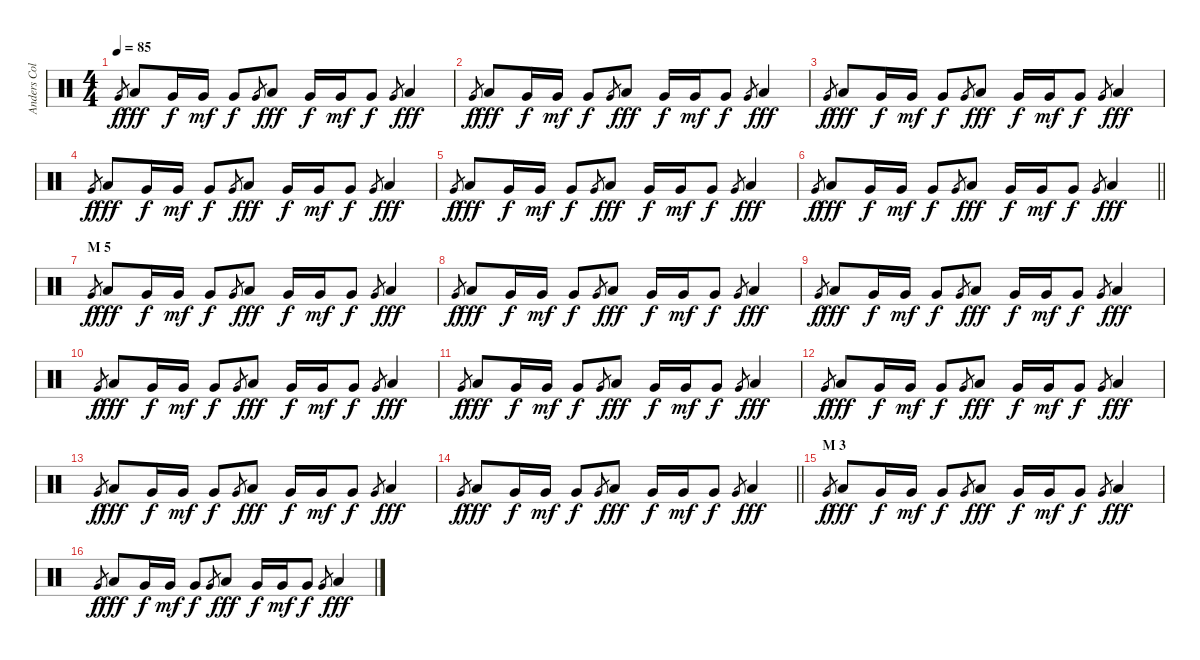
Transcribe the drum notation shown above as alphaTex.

\track ("Anders Colsefni" "Anders Col") {instrument percussion}
\staff {score}
\articulation defaults
\ts (4 4)
\tempo 85
\clef neutral
\ks c "Very Low Tom (hit)".8{gr dy f} "Low Tom (hit)".8{dy fff} "Very Low Tom (hit)".16{dy f} "Very Low Tom (hit)".16{dy mf} "Very Low Tom (hit)".8{dy f} "Very Low Tom (hit)".8{gr} "Low Tom (hit)".8{dy fff} "Very Low Tom (hit)".16{dy f} "Very Low Tom (hit)".16{dy mf} "Very Low Tom (hit)".8{dy f} "Very Low Tom (hit)".8{gr} "Low Tom (hit)".4{dy fff}
|
"Very Low Tom (hit)".8{gr dy f} "Low Tom (hit)".8{dy fff} "Very Low Tom (hit)".16{dy f} "Very Low Tom (hit)".16{dy mf} "Very Low Tom (hit)".8{dy f} "Very Low Tom (hit)".8{gr} "Low Tom (hit)".8{dy fff} "Very Low Tom (hit)".16{dy f} "Very Low Tom (hit)".16{dy mf} "Very Low Tom (hit)".8{dy f} "Very Low Tom (hit)".8{gr} "Low Tom (hit)".4{dy fff} |
"Very Low Tom (hit)".8{gr dy f} "Low Tom (hit)".8{dy fff} "Very Low Tom (hit)".16{dy f} "Very Low Tom (hit)".16{dy mf} "Very Low Tom (hit)".8{dy f} "Very Low Tom (hit)".8{gr} "Low Tom (hit)".8{dy fff} "Very Low Tom (hit)".16{dy f} "Very Low Tom (hit)".16{dy mf} "Very Low Tom (hit)".8{dy f} "Very Low Tom (hit)".8{gr} "Low Tom (hit)".4{dy fff} |
"Very Low Tom (hit)".8{gr dy f} "Low Tom (hit)".8{dy fff} "Very Low Tom (hit)".16{dy f} "Very Low Tom (hit)".16{dy mf} "Very Low Tom (hit)".8{dy f} "Very Low Tom (hit)".8{gr} "Low Tom (hit)".8{dy fff} "Very Low Tom (hit)".16{dy f} "Very Low Tom (hit)".16{dy mf} "Very Low Tom (hit)".8{dy f} "Very Low Tom (hit)".8{gr} "Low Tom (hit)".4{dy fff} |
"Very Low Tom (hit)".8{gr dy f} "Low Tom (hit)".8{dy fff} "Very Low Tom (hit)".16{dy f} "Very Low Tom (hit)".16{dy mf} "Very Low Tom (hit)".8{dy f} "Very Low Tom (hit)".8{gr} "Low Tom (hit)".8{dy fff} "Very Low Tom (hit)".16{dy f} "Very Low Tom (hit)".16{dy mf} "Very Low Tom (hit)".8{dy f} "Very Low Tom (hit)".8{gr} "Low Tom (hit)".4{dy fff} |
\barLineRight lightlight "Very Low Tom (hit)".8{gr dy f} "Low Tom (hit)".8{dy fff} "Very Low Tom (hit)".16{dy f} "Very Low Tom (hit)".16{dy mf} "Very Low Tom (hit)".8{dy f} "Very Low Tom (hit)".8{gr} "Low Tom (hit)".8{dy fff} "Very Low Tom (hit)".16{dy f} "Very Low Tom (hit)".16{dy mf} "Very Low Tom (hit)".8{dy f} "Very Low Tom (hit)".8{gr} "Low Tom (hit)".4{dy fff}
|
\section ("" "M 5")
"Very Low Tom (hit)".8{gr dy f} "Low Tom (hit)".8{dy fff} "Very Low Tom (hit)".16{dy f} "Very Low Tom (hit)".16{dy mf} "Very Low Tom (hit)".8{dy f} "Very Low Tom (hit)".8{gr} "Low Tom (hit)".8{dy fff} "Very Low Tom (hit)".16{dy f} "Very Low Tom (hit)".16{dy mf} "Very Low Tom (hit)".8{dy f} "Very Low Tom (hit)".8{gr} "Low Tom (hit)".4{dy fff} |
"Very Low Tom (hit)".8{gr dy f} "Low Tom (hit)".8{dy fff} "Very Low Tom (hit)".16{dy f} "Very Low Tom (hit)".16{dy mf} "Very Low Tom (hit)".8{dy f} "Very Low Tom (hit)".8{gr} "Low Tom (hit)".8{dy fff} "Very Low Tom (hit)".16{dy f} "Very Low Tom (hit)".16{dy mf} "Very Low Tom (hit)".8{dy f} "Very Low Tom (hit)".8{gr} "Low Tom (hit)".4{dy fff} |
"Very Low Tom (hit)".8{gr dy f} "Low Tom (hit)".8{dy fff} "Very Low Tom (hit)".16{dy f} "Very Low Tom (hit)".16{dy mf} "Very Low Tom (hit)".8{dy f} "Very Low Tom (hit)".8{gr} "Low Tom (hit)".8{dy fff} "Very Low Tom (hit)".16{dy f} "Very Low Tom (hit)".16{dy mf} "Very Low Tom (hit)".8{dy f} "Very Low Tom (hit)".8{gr} "Low Tom (hit)".4{dy fff} |
"Very Low Tom (hit)".8{gr dy f} "Low Tom (hit)".8{dy fff} "Very Low Tom (hit)".16{dy f} "Very Low Tom (hit)".16{dy mf} "Very Low Tom (hit)".8{dy f} "Very Low Tom (hit)".8{gr} "Low Tom (hit)".8{dy fff} "Very Low Tom (hit)".16{dy f} "Very Low Tom (hit)".16{dy mf} "Very Low Tom (hit)".8{dy f} "Very Low Tom (hit)".8{gr} "Low Tom (hit)".4{dy fff} |
"Very Low Tom (hit)".8{gr dy f} "Low Tom (hit)".8{dy fff} "Very Low Tom (hit)".16{dy f} "Very Low Tom (hit)".16{dy mf} "Very Low Tom (hit)".8{dy f} "Very Low Tom (hit)".8{gr} "Low Tom (hit)".8{dy fff} "Very Low Tom (hit)".16{dy f} "Very Low Tom (hit)".16{dy mf} "Very Low Tom (hit)".8{dy f} "Very Low Tom (hit)".8{gr} "Low Tom (hit)".4{dy fff} |
"Very Low Tom (hit)".8{gr dy f} "Low Tom (hit)".8{dy fff} "Very Low Tom (hit)".16{dy f} "Very Low Tom (hit)".16{dy mf} "Very Low Tom (hit)".8{dy f} "Very Low Tom (hit)".8{gr} "Low Tom (hit)".8{dy fff} "Very Low Tom (hit)".16{dy f} "Very Low Tom (hit)".16{dy mf} "Very Low Tom (hit)".8{dy f} "Very Low Tom (hit)".8{gr} "Low Tom (hit)".4{dy fff} |
"Very Low Tom (hit)".8{gr dy f} "Low Tom (hit)".8{dy fff} "Very Low Tom (hit)".16{dy f} "Very Low Tom (hit)".16{dy mf} "Very Low Tom (hit)".8{dy f} "Very Low Tom (hit)".8{gr} "Low Tom (hit)".8{dy fff} "Very Low Tom (hit)".16{dy f} "Very Low Tom (hit)".16{dy mf} "Very Low Tom (hit)".8{dy f} "Very Low Tom (hit)".8{gr} "Low Tom (hit)".4{dy fff} |
\barLineRight lightlight "Very Low Tom (hit)".8{gr dy f} "Low Tom (hit)".8{dy fff} "Very Low Tom (hit)".16{dy f} "Very Low Tom (hit)".16{dy mf} "Very Low Tom (hit)".8{dy f} "Very Low Tom (hit)".8{gr} "Low Tom (hit)".8{dy fff} "Very Low Tom (hit)".16{dy f} "Very Low Tom (hit)".16{dy mf} "Very Low Tom (hit)".8{dy f} "Very Low Tom (hit)".8{gr} "Low Tom (hit)".4{dy fff}
|
\section ("" "M 3")
"Very Low Tom (hit)".8{gr dy f} "Low Tom (hit)".8{dy fff} "Very Low Tom (hit)".16{dy f} "Very Low Tom (hit)".16{dy mf} "Very Low Tom (hit)".8{dy f} "Very Low Tom (hit)".8{gr} "Low Tom (hit)".8{dy fff} "Very Low Tom (hit)".16{dy f} "Very Low Tom (hit)".16{dy mf} "Very Low Tom (hit)".8{dy f} "Very Low Tom (hit)".8{gr} "Low Tom (hit)".4{dy fff} |
"Very Low Tom (hit)".8{gr dy f} "Low Tom (hit)".8{dy fff} "Very Low Tom (hit)".16{dy f} "Very Low Tom (hit)".16{dy mf} "Very Low Tom (hit)".8{dy f} "Very Low Tom (hit)".8{gr} "Low Tom (hit)".8{dy fff} "Very Low Tom (hit)".16{dy f} "Very Low Tom (hit)".16{dy mf} "Very Low Tom (hit)".8{dy f} "Very Low Tom (hit)".8{gr} "Low Tom (hit)".4{dy fff}
